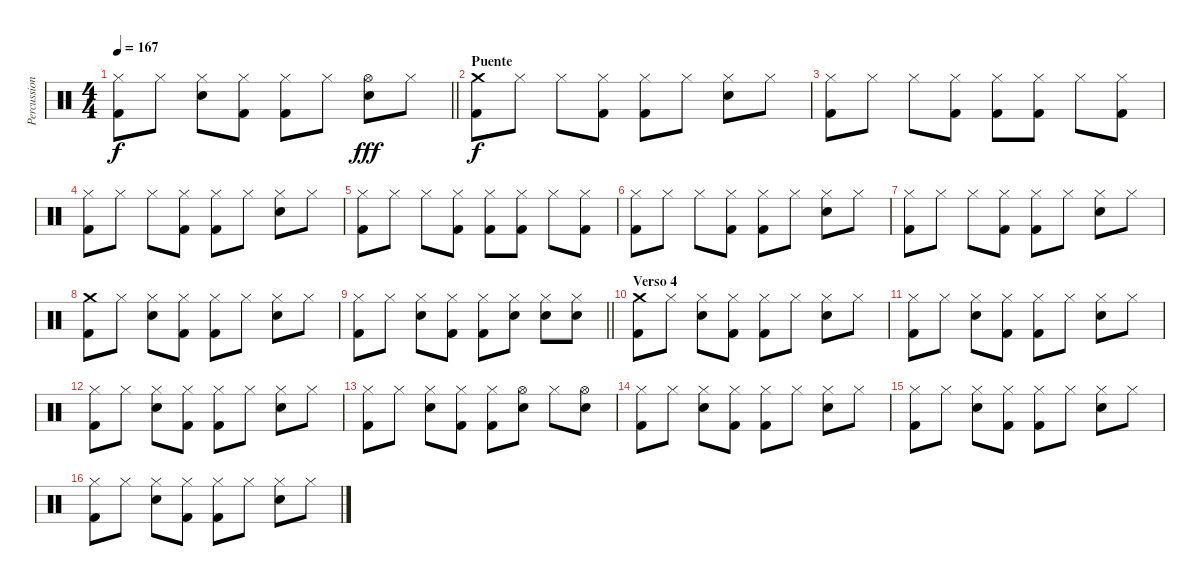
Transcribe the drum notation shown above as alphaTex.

\track ("Percussion" "Percussion") {instrument percussion}
\staff {score}
\articulation defaults
\ts (4 4)
\tempo 167
\clef neutral
\barLineRight lightlight
\ks c
("Hi-Hat (closed)" "Kick (hit) 2").8{dy f} "Hi-Hat (closed)".8 ("Hi-Hat (closed)" "Snare (hit) 2").8 ("Hi-Hat (closed)" "Kick (hit) 2").8 ("Hi-Hat (closed)" "Kick (hit) 2").8 "Hi-Hat (closed)".8 ("Hi-Hat (open)" "Snare (hit) 2").8{dy fff} "Hi-Hat (closed)".8 |
\section ("" "Puente")
("Crash medium (hit)" "Kick (hit) 2").8{dy f} "Hi-Hat (closed)".8 "Hi-Hat (closed)".8 ("Hi-Hat (closed)" "Kick (hit) 2").8 ("Hi-Hat (closed)" "Kick (hit) 2").8 "Hi-Hat (closed)".8 ("Hi-Hat (closed)" "Snare (hit) 2").8 "Hi-Hat (closed)".8 |
("Hi-Hat (closed)" "Kick (hit) 2").8 "Hi-Hat (closed)".8 "Hi-Hat (closed)".8 ("Hi-Hat (closed)" "Kick (hit) 2").8 ("Hi-Hat (closed)" "Kick (hit) 2").8 ("Hi-Hat (closed)" "Kick (hit) 2").8 "Hi-Hat (closed)".8 ("Hi-Hat (closed)" "Kick (hit) 2").8 |
("Hi-Hat (closed)" "Kick (hit) 2").8 "Hi-Hat (closed)".8 "Hi-Hat (closed)".8 ("Hi-Hat (closed)" "Kick (hit) 2").8 ("Hi-Hat (closed)" "Kick (hit) 2").8 "Hi-Hat (closed)".8 ("Hi-Hat (closed)" "Snare (hit) 2").8 "Hi-Hat (closed)".8 |
("Hi-Hat (closed)" "Kick (hit) 2").8 "Hi-Hat (closed)".8 "Hi-Hat (closed)".8 ("Hi-Hat (closed)" "Kick (hit) 2").8 ("Hi-Hat (closed)" "Kick (hit) 2").8 ("Hi-Hat (closed)" "Kick (hit) 2").8 "Hi-Hat (closed)".8 ("Hi-Hat (closed)" "Kick (hit) 2").8 |
("Hi-Hat (closed)" "Kick (hit) 2").8 "Hi-Hat (closed)".8 "Hi-Hat (closed)".8 ("Hi-Hat (closed)" "Kick (hit) 2").8 ("Hi-Hat (closed)" "Kick (hit) 2").8 "Hi-Hat (closed)".8 ("Hi-Hat (closed)" "Snare (hit) 2").8 "Hi-Hat (closed)".8 |
("Hi-Hat (closed)" "Kick (hit) 2").8 "Hi-Hat (closed)".8 "Hi-Hat (closed)".8 ("Hi-Hat (closed)" "Kick (hit) 2").8 ("Hi-Hat (closed)" "Kick (hit) 2").8 "Hi-Hat (closed)".8 ("Hi-Hat (closed)" "Snare (hit) 2").8 "Hi-Hat (closed)".8 |
("Crash medium (hit)" "Kick (hit) 2").8 "Hi-Hat (closed)".8 ("Hi-Hat (closed)" "Snare (hit) 2").8 ("Hi-Hat (closed)" "Kick (hit) 2").8 ("Hi-Hat (closed)" "Kick (hit) 2").8 "Hi-Hat (closed)".8 ("Hi-Hat (closed)" "Snare (hit) 2").8 "Hi-Hat (closed)".8 |
\barLineRight lightlight
("Hi-Hat (closed)" "Kick (hit) 2").8 "Hi-Hat (closed)".8 ("Hi-Hat (closed)" "Snare (hit) 2").8 ("Hi-Hat (closed)" "Kick (hit) 2").8 ("Hi-Hat (closed)" "Kick (hit) 2").8 ("Hi-Hat (closed)" "Snare (hit) 2").8 ("Hi-Hat (closed)" "Snare (hit) 2").8 ("Hi-Hat (closed)" "Snare (hit) 2").8 |
\section ("" "Verso 4")
("Crash medium (hit)" "Kick (hit) 2").8 "Hi-Hat (closed)".8 ("Hi-Hat (closed)" "Snare (hit) 2").8 ("Hi-Hat (closed)" "Kick (hit) 2").8 ("Hi-Hat (closed)" "Kick (hit) 2").8 "Hi-Hat (closed)".8 ("Hi-Hat (closed)" "Snare (hit) 2").8 "Hi-Hat (closed)".8 |
("Hi-Hat (closed)" "Kick (hit) 2").8 "Hi-Hat (closed)".8 ("Hi-Hat (closed)" "Snare (hit) 2").8 ("Hi-Hat (closed)" "Kick (hit) 2").8 ("Hi-Hat (closed)" "Kick (hit) 2").8 "Hi-Hat (closed)".8 ("Hi-Hat (closed)" "Snare (hit) 2").8 "Hi-Hat (closed)".8 |
("Hi-Hat (closed)" "Kick (hit) 2").8 "Hi-Hat (closed)".8 ("Hi-Hat (closed)" "Snare (hit) 2").8 ("Hi-Hat (closed)" "Kick (hit) 2").8 ("Hi-Hat (closed)" "Kick (hit) 2").8 "Hi-Hat (closed)".8 ("Hi-Hat (closed)" "Snare (hit) 2").8 "Hi-Hat (closed)".8 |
("Hi-Hat (closed)" "Kick (hit) 2").8 "Hi-Hat (closed)".8 ("Hi-Hat (closed)" "Snare (hit) 2").8 ("Hi-Hat (closed)" "Kick (hit) 2").8 ("Hi-Hat (closed)" "Kick (hit) 2").8 ("Hi-Hat (open)" "Snare (hit) 2").8 "Hi-Hat (closed)".8 ("Hi-Hat (open)" "Snare (hit) 2").8 |
("Hi-Hat (closed)" "Kick (hit) 2").8 "Hi-Hat (closed)".8 ("Hi-Hat (closed)" "Snare (hit) 2").8 ("Hi-Hat (closed)" "Kick (hit) 2").8 ("Hi-Hat (closed)" "Kick (hit) 2").8 "Hi-Hat (closed)".8 ("Hi-Hat (closed)" "Snare (hit) 2").8 "Hi-Hat (closed)".8 |
("Hi-Hat (closed)" "Kick (hit) 2").8 "Hi-Hat (closed)".8 ("Hi-Hat (closed)" "Snare (hit) 2").8 ("Hi-Hat (closed)" "Kick (hit) 2").8 ("Hi-Hat (closed)" "Kick (hit) 2").8 "Hi-Hat (closed)".8 ("Hi-Hat (closed)" "Snare (hit) 2").8 "Hi-Hat (closed)".8 |
("Hi-Hat (closed)" "Kick (hit) 2").8 "Hi-Hat (closed)".8 ("Hi-Hat (closed)" "Snare (hit) 2").8 ("Hi-Hat (closed)" "Kick (hit) 2").8 ("Hi-Hat (closed)" "Kick (hit) 2").8 "Hi-Hat (closed)".8 ("Hi-Hat (closed)" "Snare (hit) 2").8 "Hi-Hat (closed)".8
